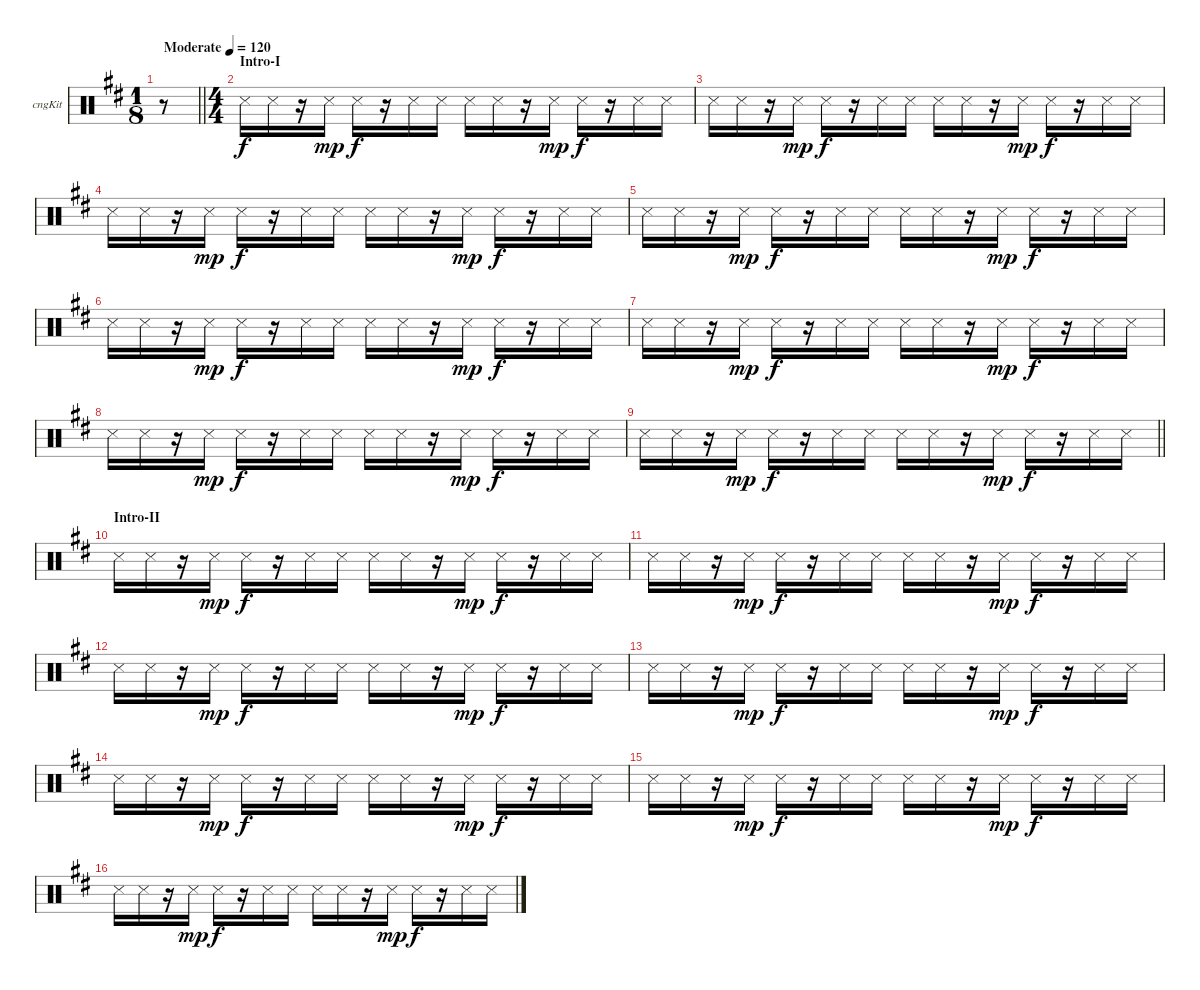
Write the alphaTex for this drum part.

\bracketExtendMode groupsimilarinstruments
\firstSystemTrackNameOrientation horizontal
\otherSystemsTrackNameOrientation horizontal
\track ("Congas" "cngKit") {instrument percussion}
\staff {score}
\articulation defaults
\ts (1 8)
\beaming (8 1)
\tempo (120 "Moderate")
\clef neutral
\barLineRight lightlight
\ks d
r.8{dy f} |
\ts (4 4)
\beaming (8 2 2 2 2)
\section ("" "Intro-I")
"Snare (side stick) 3".16 "Snare (side stick) 3".16 r.16 "Snare (side stick) 3".16{dy mp} "Snare (side stick) 3".16{dy f} r.16 "Snare (side stick) 3".16 "Snare (side stick) 3".16 "Snare (side stick) 3".16 "Snare (side stick) 3".16 r.16 "Snare (side stick) 3".16{dy mp} "Snare (side stick) 3".16{dy f} r.16 "Snare (side stick) 3".16 "Snare (side stick) 3".16 |
"Snare (side stick) 3".16 "Snare (side stick) 3".16 r.16 "Snare (side stick) 3".16{dy mp} "Snare (side stick) 3".16{dy f} r.16 "Snare (side stick) 3".16 "Snare (side stick) 3".16 "Snare (side stick) 3".16 "Snare (side stick) 3".16 r.16 "Snare (side stick) 3".16{dy mp} "Snare (side stick) 3".16{dy f} r.16 "Snare (side stick) 3".16 "Snare (side stick) 3".16 |
"Snare (side stick) 3".16 "Snare (side stick) 3".16 r.16 "Snare (side stick) 3".16{dy mp} "Snare (side stick) 3".16{dy f} r.16 "Snare (side stick) 3".16 "Snare (side stick) 3".16 "Snare (side stick) 3".16 "Snare (side stick) 3".16 r.16 "Snare (side stick) 3".16{dy mp} "Snare (side stick) 3".16{dy f} r.16 "Snare (side stick) 3".16 "Snare (side stick) 3".16 |
"Snare (side stick) 3".16 "Snare (side stick) 3".16 r.16 "Snare (side stick) 3".16{dy mp} "Snare (side stick) 3".16{dy f} r.16 "Snare (side stick) 3".16 "Snare (side stick) 3".16 "Snare (side stick) 3".16 "Snare (side stick) 3".16 r.16 "Snare (side stick) 3".16{dy mp} "Snare (side stick) 3".16{dy f} r.16 "Snare (side stick) 3".16 "Snare (side stick) 3".16 |
"Snare (side stick) 3".16 "Snare (side stick) 3".16 r.16 "Snare (side stick) 3".16{dy mp} "Snare (side stick) 3".16{dy f} r.16 "Snare (side stick) 3".16 "Snare (side stick) 3".16 "Snare (side stick) 3".16 "Snare (side stick) 3".16 r.16 "Snare (side stick) 3".16{dy mp} "Snare (side stick) 3".16{dy f} r.16 "Snare (side stick) 3".16 "Snare (side stick) 3".16 |
"Snare (side stick) 3".16 "Snare (side stick) 3".16 r.16 "Snare (side stick) 3".16{dy mp} "Snare (side stick) 3".16{dy f} r.16 "Snare (side stick) 3".16 "Snare (side stick) 3".16 "Snare (side stick) 3".16 "Snare (side stick) 3".16 r.16 "Snare (side stick) 3".16{dy mp} "Snare (side stick) 3".16{dy f} r.16 "Snare (side stick) 3".16 "Snare (side stick) 3".16 |
"Snare (side stick) 3".16 "Snare (side stick) 3".16 r.16 "Snare (side stick) 3".16{dy mp} "Snare (side stick) 3".16{dy f} r.16 "Snare (side stick) 3".16 "Snare (side stick) 3".16 "Snare (side stick) 3".16 "Snare (side stick) 3".16 r.16 "Snare (side stick) 3".16{dy mp} "Snare (side stick) 3".16{dy f} r.16 "Snare (side stick) 3".16 "Snare (side stick) 3".16 |
\barLineRight lightlight "Snare (side stick) 3".16 "Snare (side stick) 3".16
r.16 "Snare (side stick) 3".16{dy mp} "Snare (side stick) 3".16{dy f} r.16 "Snare (side stick) 3".16 "Snare (side stick) 3".16 "Snare (side stick) 3".16 "Snare (side stick) 3".16 r.16 "Snare (side stick) 3".16{dy mp} "Snare (side stick) 3".16{dy f} r.16 "Snare (side stick) 3".16 "Snare (side stick) 3".16 |
\section ("" "Intro-II")
"Snare (side stick) 3".16 "Snare (side stick) 3".16 r.16 "Snare (side stick) 3".16{dy mp} "Snare (side stick) 3".16{dy f} r.16 "Snare (side stick) 3".16 "Snare (side stick) 3".16 "Snare (side stick) 3".16 "Snare (side stick) 3".16 r.16 "Snare (side stick) 3".16{dy mp} "Snare (side stick) 3".16{dy f} r.16 "Snare (side stick) 3".16 "Snare (side stick) 3".16 |
"Snare (side stick) 3".16 "Snare (side stick) 3".16 r.16 "Snare (side stick) 3".16{dy mp} "Snare (side stick) 3".16{dy f} r.16 "Snare (side stick) 3".16 "Snare (side stick) 3".16 "Snare (side stick) 3".16 "Snare (side stick) 3".16 r.16 "Snare (side stick) 3".16{dy mp} "Snare (side stick) 3".16{dy f} r.16 "Snare (side stick) 3".16 "Snare (side stick) 3".16 |
"Snare (side stick) 3".16 "Snare (side stick) 3".16 r.16 "Snare (side stick) 3".16{dy mp} "Snare (side stick) 3".16{dy f} r.16 "Snare (side stick) 3".16 "Snare (side stick) 3".16 "Snare (side stick) 3".16 "Snare (side stick) 3".16 r.16 "Snare (side stick) 3".16{dy mp} "Snare (side stick) 3".16{dy f} r.16 "Snare (side stick) 3".16 "Snare (side stick) 3".16 |
"Snare (side stick) 3".16 "Snare (side stick) 3".16 r.16 "Snare (side stick) 3".16{dy mp} "Snare (side stick) 3".16{dy f} r.16 "Snare (side stick) 3".16 "Snare (side stick) 3".16 "Snare (side stick) 3".16 "Snare (side stick) 3".16 r.16 "Snare (side stick) 3".16{dy mp} "Snare (side stick) 3".16{dy f} r.16 "Snare (side stick) 3".16 "Snare (side stick) 3".16 |
"Snare (side stick) 3".16 "Snare (side stick) 3".16 r.16 "Snare (side stick) 3".16{dy mp} "Snare (side stick) 3".16{dy f} r.16 "Snare (side stick) 3".16 "Snare (side stick) 3".16 "Snare (side stick) 3".16 "Snare (side stick) 3".16 r.16 "Snare (side stick) 3".16{dy mp} "Snare (side stick) 3".16{dy f} r.16 "Snare (side stick) 3".16 "Snare (side stick) 3".16 |
"Snare (side stick) 3".16 "Snare (side stick) 3".16 r.16 "Snare (side stick) 3".16{dy mp} "Snare (side stick) 3".16{dy f} r.16 "Snare (side stick) 3".16 "Snare (side stick) 3".16 "Snare (side stick) 3".16 "Snare (side stick) 3".16 r.16 "Snare (side stick) 3".16{dy mp} "Snare (side stick) 3".16{dy f} r.16 "Snare (side stick) 3".16 "Snare (side stick) 3".16 |
"Snare (side stick) 3".16 "Snare (side stick) 3".16 r.16 "Snare (side stick) 3".16{dy mp} "Snare (side stick) 3".16{dy f} r.16 "Snare (side stick) 3".16 "Snare (side stick) 3".16 "Snare (side stick) 3".16 "Snare (side stick) 3".16 r.16 "Snare (side stick) 3".16{dy mp} "Snare (side stick) 3".16{dy f} r.16 "Snare (side stick) 3".16 "Snare (side stick) 3".16
